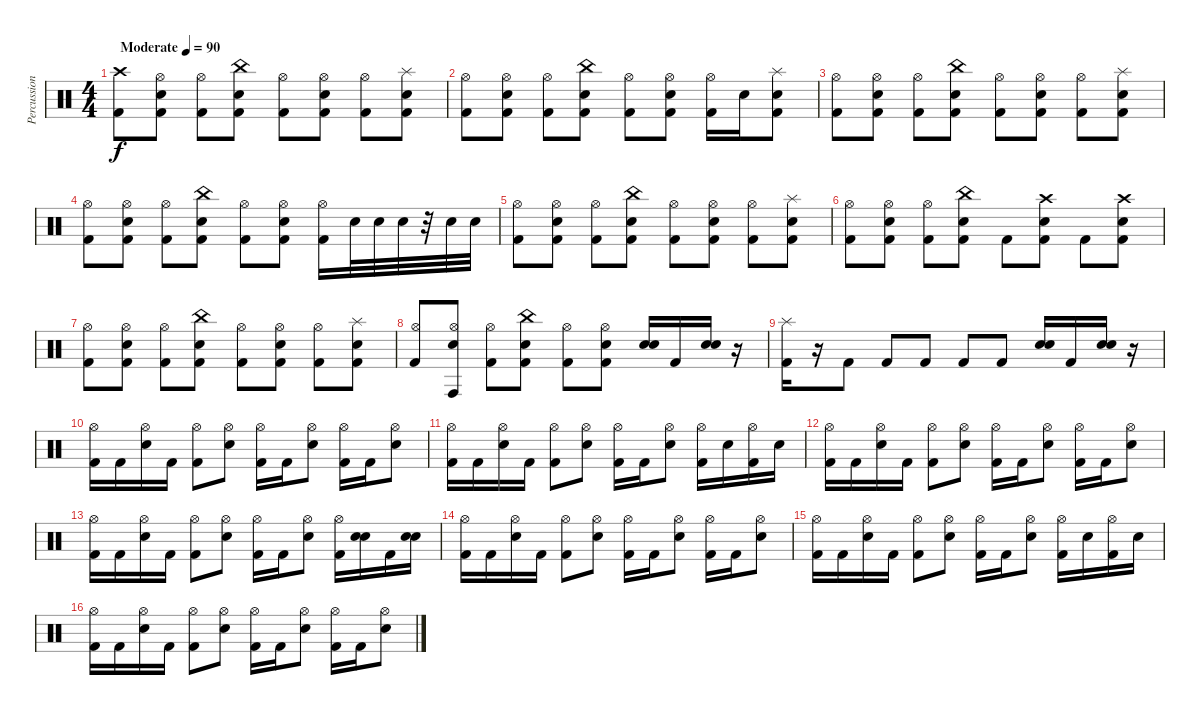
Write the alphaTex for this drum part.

\track ("Percussion" "Percussion") {instrument percussion}
\staff {score}
\articulation defaults
\ts (4 4)
\tempo (90 "Moderate")
\clef neutral
\ks c
("Crash high (hit)" "Kick (hit) 2").8{dy f} ("Hi-Hat (open)" "Electric Snare (hit)" "Kick (hit) 2").8 ("Hi-Hat (open)" "Kick (hit) 2").8 ("China (hit)" "Electric Snare (hit)" "Kick (hit) 2").8 ("Hi-Hat (open)" "Kick (hit) 2").8 ("Hi-Hat (open)" "Electric Snare (hit)" "Kick (hit) 2").8 ("Hi-Hat (open)" "Kick (hit) 2").8 ("Splash (hit)" "Electric Snare (hit)" "Kick (hit) 2").8 |
("Hi-Hat (open)" "Kick (hit) 2").8 ("Hi-Hat (open)" "Electric Snare (hit)" "Kick (hit) 2").8 ("Hi-Hat (open)" "Kick (hit) 2").8 ("China (hit)" "Electric Snare (hit)" "Kick (hit) 2").8 ("Hi-Hat (open)" "Kick (hit) 2").8 ("Hi-Hat (open)" "Electric Snare (hit)" "Kick (hit) 2").8 ("Hi-Hat (open)" "Kick (hit) 2").16 "Electric Snare (hit)".16 ("Splash (hit)" "Electric Snare (hit)" "Kick (hit) 2").8 |
("Hi-Hat (open)" "Kick (hit) 2").8 ("Hi-Hat (open)" "Electric Snare (hit)" "Kick (hit) 2").8 ("Hi-Hat (open)" "Kick (hit) 2").8 ("China (hit)" "Electric Snare (hit)" "Kick (hit) 2").8 ("Hi-Hat (open)" "Kick (hit) 2").8 ("Hi-Hat (open)" "Electric Snare (hit)" "Kick (hit) 2").8 ("Hi-Hat (open)" "Kick (hit) 2").8 ("Splash (hit)" "Electric Snare (hit)" "Kick (hit) 2").8 |
("Hi-Hat (open)" "Kick (hit) 2").8 ("Hi-Hat (open)" "Electric Snare (hit)" "Kick (hit) 2").8 ("Hi-Hat (open)" "Kick (hit) 2").8 ("China (hit)" "Electric Snare (hit)" "Kick (hit) 2").8 ("Hi-Hat (open)" "Kick (hit) 2").8 ("Hi-Hat (open)" "Electric Snare (hit)" "Kick (hit) 2").8 ("Hi-Hat (open)" "Kick (hit) 2").16 "Electric Snare (hit)".32 "Electric Snare (hit)".32 "Electric Snare (hit)".32 r.32 "Electric Snare (hit)".32 "Electric Snare (hit)".32 |
("Hi-Hat (open)" "Kick (hit) 2").8 ("Hi-Hat (open)" "Electric Snare (hit)" "Kick (hit) 2").8 ("Hi-Hat (open)" "Kick (hit) 2").8 ("China (hit)" "Electric Snare (hit)" "Kick (hit) 2").8 ("Hi-Hat (open)" "Kick (hit) 2").8 ("Hi-Hat (open)" "Electric Snare (hit)" "Kick (hit) 2").8 ("Hi-Hat (open)" "Kick (hit) 2").8 ("Splash (hit)" "Electric Snare (hit)" "Kick (hit) 2").8 |
("Hi-Hat (open)" "Kick (hit) 2").8 ("Hi-Hat (open)" "Electric Snare (hit)" "Kick (hit) 2").8 ("Hi-Hat (open)" "Kick (hit) 2").8 ("China (hit)" "Electric Snare (hit)" "Kick (hit) 2").8 "Kick (hit) 2".8 ("Crash high (hit)" "Electric Snare (hit)" "Kick (hit) 2").8 "Kick (hit) 2".8 ("Crash high (hit)" "Electric Snare (hit)" "Kick (hit) 2").8 |
("Hi-Hat (open)" "Kick (hit) 2").8 ("Hi-Hat (open)" "Electric Snare (hit)" "Kick (hit) 2").8 ("Hi-Hat (open)" "Kick (hit) 2").8 ("China (hit)" "Electric Snare (hit)" "Kick (hit) 2").8 ("Hi-Hat (open)" "Kick (hit) 2").8 ("Hi-Hat (open)" "Electric Snare (hit)" "Kick (hit) 2").8 ("Hi-Hat (open)" "Kick (hit) 2").8 ("Splash (hit)" "Electric Snare (hit)" "Kick (hit) 2").8 |
("Hi-Hat (open)" "Kick (hit) 2").8 ("Hi-Hat (open)" "Electric Snare (hit)" "Conga high (hit)").8 ("Hi-Hat (open)" "Kick (hit) 2").8 ("China (hit)" "Electric Snare (hit)" "Kick (hit) 2").8 ("Hi-Hat (open)" "Kick (hit) 2").8 ("Hi-Hat (open)" "Electric Snare (hit)" "Kick (hit) 2").8 ("Electric Snare (hit)" "Electric Snare (hit)").16 "Kick (hit) 2".16 ("Electric Snare (hit)" "Electric Snare (hit)").16 r.16 |
("Splash (hit)" "Kick (hit) 2").16 r.16 "Kick (hit) 2".8 "Kick (hit) 2".8 "Kick (hit) 2".8 "Kick (hit) 2".8 "Kick (hit) 2".8 ("Electric Snare (hit)" "Electric Snare (hit)").16 "Kick (hit) 2".16 ("Electric Snare (hit)" "Electric Snare (hit)").16 r.16 |
("Hi-Hat (open)" "Kick (hit) 2").16 "Kick (hit) 2".16 ("Hi-Hat (open)" "Electric Snare (hit)").16 "Kick (hit) 2".16 ("Hi-Hat (open)" "Kick (hit) 2").8 ("Hi-Hat (open)" "Electric Snare (hit)").8 ("Hi-Hat (open)" "Kick (hit) 2").16 "Kick (hit) 2".16 ("Hi-Hat (open)" "Electric Snare (hit)").8 ("Hi-Hat (open)" "Kick (hit) 2").16 "Kick (hit) 2".16 ("Hi-Hat (open)" "Electric Snare (hit)").8 |
("Hi-Hat (open)" "Kick (hit) 2").16 "Kick (hit) 2".16 ("Hi-Hat (open)" "Electric Snare (hit)").16 "Kick (hit) 2".16 ("Hi-Hat (open)" "Kick (hit) 2").8 ("Hi-Hat (open)" "Electric Snare (hit)").8 ("Hi-Hat (open)" "Kick (hit) 2").16 "Kick (hit) 2".16 ("Hi-Hat (open)" "Electric Snare (hit)").8 ("Hi-Hat (open)" "Kick (hit) 2").16 "Electric Snare (hit)".16 ("Hi-Hat (open)" "Kick (hit) 2").16 "Electric Snare (hit)".16 |
("Hi-Hat (open)" "Kick (hit) 2").16 "Kick (hit) 2".16 ("Hi-Hat (open)" "Electric Snare (hit)").16 "Kick (hit) 2".16 ("Hi-Hat (open)" "Kick (hit) 2").8 ("Hi-Hat (open)" "Electric Snare (hit)").8 ("Hi-Hat (open)" "Kick (hit) 2").16 "Kick (hit) 2".16 ("Hi-Hat (open)" "Electric Snare (hit)").8 ("Hi-Hat (open)" "Kick (hit) 2").16 "Kick (hit) 2".16 ("Hi-Hat (open)" "Electric Snare (hit)").8 |
("Hi-Hat (open)" "Kick (hit) 2").16 "Kick (hit) 2".16 ("Hi-Hat (open)" "Electric Snare (hit)").16 "Kick (hit) 2".16 ("Hi-Hat (open)" "Kick (hit) 2").8 ("Hi-Hat (open)" "Electric Snare (hit)").8 ("Hi-Hat (open)" "Kick (hit) 2").16 "Kick (hit) 2".16 ("Hi-Hat (open)" "Electric Snare (hit)").8 ("Hi-Hat (open)" "Kick (hit) 2").16 ("Electric Snare (hit)" "Electric Snare (hit)").16 "Kick (hit) 2".16 ("Electric Snare (hit)" "Electric Snare (hit)").16 |
("Hi-Hat (open)" "Kick (hit) 2").16 "Kick (hit) 2".16 ("Hi-Hat (open)" "Electric Snare (hit)").16 "Kick (hit) 2".16 ("Hi-Hat (open)" "Kick (hit) 2").8 ("Hi-Hat (open)" "Electric Snare (hit)").8 ("Hi-Hat (open)" "Kick (hit) 2").16 "Kick (hit) 2".16 ("Hi-Hat (open)" "Electric Snare (hit)").8 ("Hi-Hat (open)" "Kick (hit) 2").16 "Kick (hit) 2".16 ("Hi-Hat (open)" "Electric Snare (hit)").8 |
("Hi-Hat (open)" "Kick (hit) 2").16 "Kick (hit) 2".16 ("Hi-Hat (open)" "Electric Snare (hit)").16 "Kick (hit) 2".16 ("Hi-Hat (open)" "Kick (hit) 2").8 ("Hi-Hat (open)" "Electric Snare (hit)").8 ("Hi-Hat (open)" "Kick (hit) 2").16 "Kick (hit) 2".16 ("Hi-Hat (open)" "Electric Snare (hit)").8 ("Hi-Hat (open)" "Kick (hit) 2").16 "Electric Snare (hit)".16 ("Hi-Hat (open)" "Kick (hit) 2").16 "Electric Snare (hit)".16 |
("Hi-Hat (open)" "Kick (hit) 2").16 "Kick (hit) 2".16 ("Hi-Hat (open)" "Electric Snare (hit)").16 "Kick (hit) 2".16 ("Hi-Hat (open)" "Kick (hit) 2").8 ("Hi-Hat (open)" "Electric Snare (hit)").8 ("Hi-Hat (open)" "Kick (hit) 2").16 "Kick (hit) 2".16 ("Hi-Hat (open)" "Electric Snare (hit)").8 ("Hi-Hat (open)" "Kick (hit) 2").16 "Kick (hit) 2".16 ("Hi-Hat (open)" "Electric Snare (hit)").8
